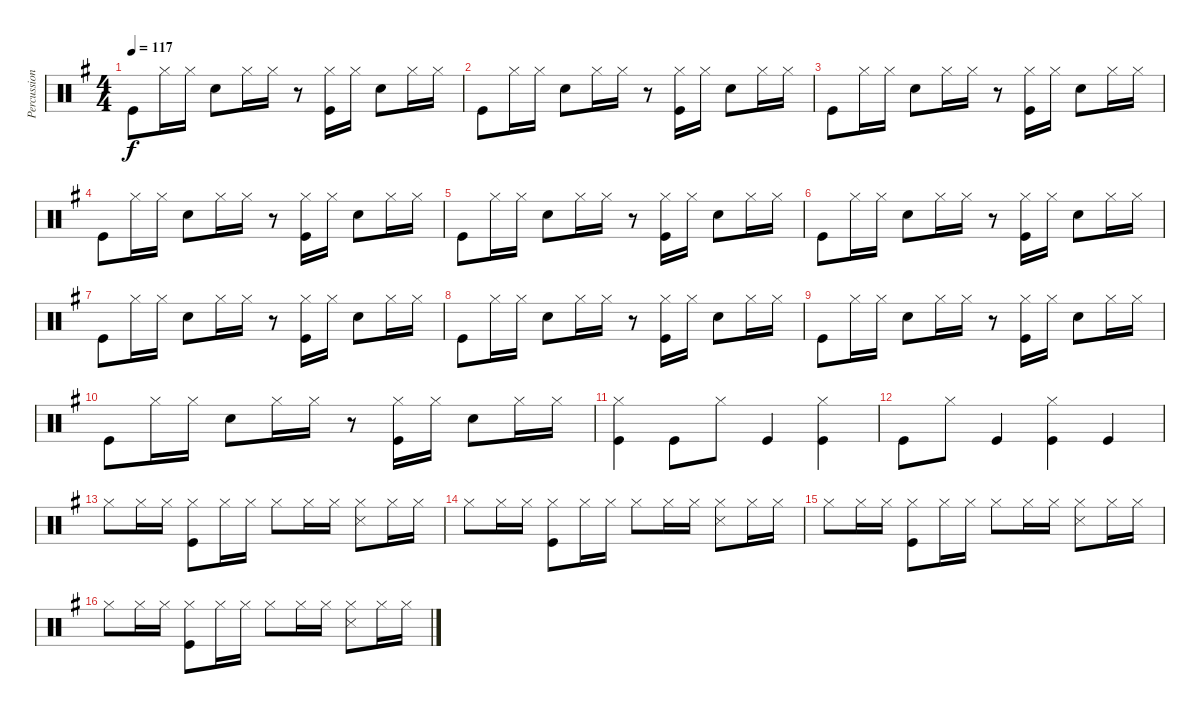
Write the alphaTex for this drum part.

\track ("Percussion" "Percussion") {instrument percussion}
\staff {score}
\articulation defaults
\ts (4 4)
\tempo 117
\clef neutral
\ks g "Kick (hit)".8{dy f} "Hi-Hat (closed)".16 "Hi-Hat (closed)".16 "Snare (hit) 2".8 "Hi-Hat (closed)".16 "Hi-Hat (closed)".16
r.8 ("Hi-Hat (closed)" "Kick (hit)").16 "Hi-Hat (closed)".16 "Snare (hit) 2".8 "Hi-Hat (closed)".16 "Hi-Hat (closed)".16 |
"Kick (hit)".8 "Hi-Hat (closed)".16 "Hi-Hat (closed)".16 "Snare (hit) 2".8 "Hi-Hat (closed)".16 "Hi-Hat (closed)".16 r.8 ("Hi-Hat (closed)" "Kick (hit)").16 "Hi-Hat (closed)".16 "Snare (hit) 2".8 "Hi-Hat (closed)".16 "Hi-Hat (closed)".16 |
"Kick (hit)".8 "Hi-Hat (closed)".16 "Hi-Hat (closed)".16 "Snare (hit) 2".8 "Hi-Hat (closed)".16 "Hi-Hat (closed)".16 r.8 ("Hi-Hat (closed)" "Kick (hit)").16 "Hi-Hat (closed)".16 "Snare (hit) 2".8 "Hi-Hat (closed)".16 "Hi-Hat (closed)".16 |
"Kick (hit)".8 "Hi-Hat (closed)".16 "Hi-Hat (closed)".16 "Snare (hit) 2".8 "Hi-Hat (closed)".16 "Hi-Hat (closed)".16 r.8 ("Hi-Hat (closed)" "Kick (hit)").16 "Hi-Hat (closed)".16 "Snare (hit) 2".8 "Hi-Hat (closed)".16 "Hi-Hat (closed)".16 |
"Kick (hit)".8 "Hi-Hat (closed)".16 "Hi-Hat (closed)".16 "Snare (hit) 2".8 "Hi-Hat (closed)".16 "Hi-Hat (closed)".16 r.8 ("Hi-Hat (closed)" "Kick (hit)").16 "Hi-Hat (closed)".16 "Snare (hit) 2".8 "Hi-Hat (closed)".16 "Hi-Hat (closed)".16 |
"Kick (hit)".8 "Hi-Hat (closed)".16 "Hi-Hat (closed)".16 "Snare (hit) 2".8 "Hi-Hat (closed)".16 "Hi-Hat (closed)".16 r.8 ("Hi-Hat (closed)" "Kick (hit)").16 "Hi-Hat (closed)".16 "Snare (hit) 2".8 "Hi-Hat (closed)".16 "Hi-Hat (closed)".16 |
"Kick (hit)".8 "Hi-Hat (closed)".16 "Hi-Hat (closed)".16 "Snare (hit) 2".8 "Hi-Hat (closed)".16 "Hi-Hat (closed)".16 r.8 ("Hi-Hat (closed)" "Kick (hit)").16 "Hi-Hat (closed)".16 "Snare (hit) 2".8 "Hi-Hat (closed)".16 "Hi-Hat (closed)".16 |
"Kick (hit)".8 "Hi-Hat (closed)".16 "Hi-Hat (closed)".16 "Snare (hit) 2".8 "Hi-Hat (closed)".16 "Hi-Hat (closed)".16 r.8 ("Hi-Hat (closed)" "Kick (hit)").16 "Hi-Hat (closed)".16 "Snare (hit) 2".8 "Hi-Hat (closed)".16 "Hi-Hat (closed)".16 |
"Kick (hit)".8 "Hi-Hat (closed)".16 "Hi-Hat (closed)".16 "Snare (hit) 2".8 "Hi-Hat (closed)".16 "Hi-Hat (closed)".16 r.8 ("Hi-Hat (closed)" "Kick (hit)").16 "Hi-Hat (closed)".16 "Snare (hit) 2".8 "Hi-Hat (closed)".16 "Hi-Hat (closed)".16 |
"Kick (hit)".8 "Hi-Hat (closed)".16 "Hi-Hat (closed)".16 "Snare (hit) 2".8 "Hi-Hat (closed)".16 "Hi-Hat (closed)".16 r.8 ("Hi-Hat (closed)" "Kick (hit)").16 "Hi-Hat (closed)".16 "Snare (hit) 2".8 "Hi-Hat (closed)".16 "Hi-Hat (closed)".16 |
("Hi-Hat (closed)" "Kick (hit)").4 "Kick (hit)".8 "Hi-Hat (closed)".8 "Kick (hit)".4 ("Hi-Hat (closed)" "Kick (hit)").4 |
"Kick (hit)".8 "Hi-Hat (closed)".8 "Kick (hit)".4 ("Hi-Hat (closed)" "Kick (hit)").4 "Kick (hit)".4 |
"Hi-Hat (closed)".8 "Hi-Hat (closed)".16 "Hi-Hat (closed)".16 ("Hi-Hat (closed)" "Kick (hit)").8 "Hi-Hat (closed)".16 "Hi-Hat (closed)".16 "Hi-Hat (closed)".8 "Hi-Hat (closed)".16 "Hi-Hat (closed)".16 ("Hi-Hat (closed)" "Snare (side stick) 3").8 "Hi-Hat (closed)".16 "Hi-Hat (closed)".16 |
"Hi-Hat (closed)".8 "Hi-Hat (closed)".16 "Hi-Hat (closed)".16 ("Hi-Hat (closed)" "Kick (hit)").8 "Hi-Hat (closed)".16 "Hi-Hat (closed)".16 "Hi-Hat (closed)".8 "Hi-Hat (closed)".16 "Hi-Hat (closed)".16 ("Hi-Hat (closed)" "Snare (side stick) 3").8 "Hi-Hat (closed)".16 "Hi-Hat (closed)".16 |
"Hi-Hat (closed)".8 "Hi-Hat (closed)".16 "Hi-Hat (closed)".16 ("Hi-Hat (closed)" "Kick (hit)").8 "Hi-Hat (closed)".16 "Hi-Hat (closed)".16 "Hi-Hat (closed)".8 "Hi-Hat (closed)".16 "Hi-Hat (closed)".16 ("Hi-Hat (closed)" "Snare (side stick) 3").8 "Hi-Hat (closed)".16 "Hi-Hat (closed)".16 |
"Hi-Hat (closed)".8 "Hi-Hat (closed)".16 "Hi-Hat (closed)".16 ("Hi-Hat (closed)" "Kick (hit)").8 "Hi-Hat (closed)".16 "Hi-Hat (closed)".16 "Hi-Hat (closed)".8 "Hi-Hat (closed)".16 "Hi-Hat (closed)".16 ("Hi-Hat (closed)" "Snare (side stick) 3").8 "Hi-Hat (closed)".16 "Hi-Hat (closed)".16
